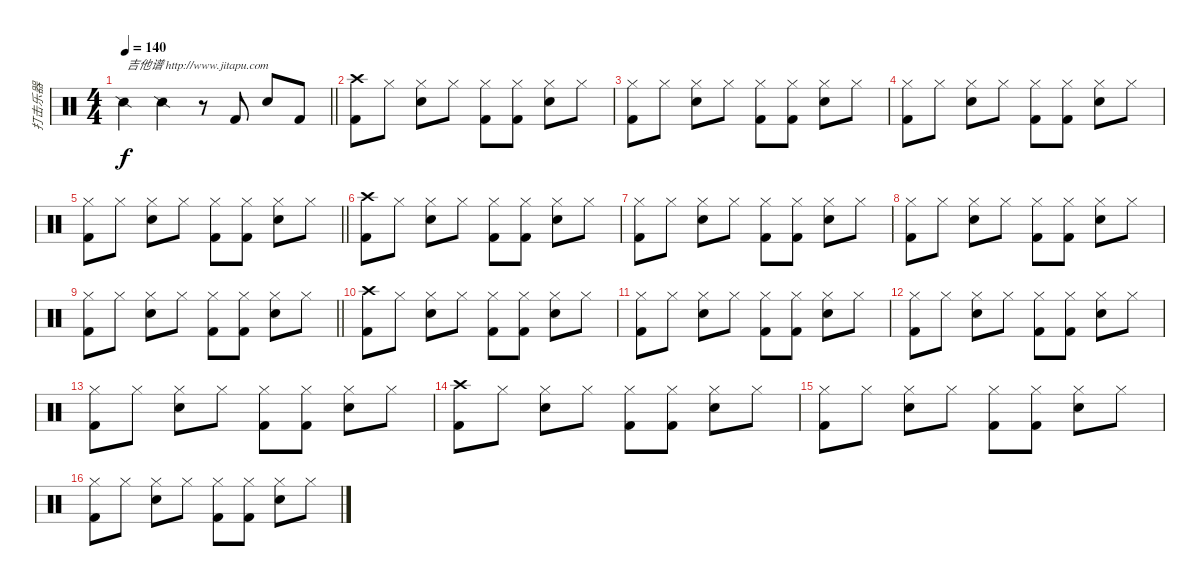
\track ("打击乐器" "打击乐器") {instrument percussion}
\staff {score}
\articulation defaults
\ts (4 4)
\tempo 140
\clef neutral
\barLineRight lightlight
\ks c "Snare (side stick) 2".4{txt "吉他谱 http://www.jitapu.com" dy f} "Snare (side stick) 2".4
r.8 "Kick (hit) 2".8 "Electric Snare (hit)".8 "Kick (hit) 2".8 |
("Crash high (hit)" "Kick (hit) 2").8 "Hi-Hat (closed)".8 ("Hi-Hat (closed)" "Electric Snare (hit)").8 "Hi-Hat (closed)".8 ("Hi-Hat (closed)" "Kick (hit) 2").8 ("Hi-Hat (closed)" "Kick (hit) 2").8 ("Hi-Hat (closed)" "Electric Snare (hit)").8 "Hi-Hat (closed)".8 |
("Hi-Hat (closed)" "Kick (hit) 2").8 "Hi-Hat (closed)".8 ("Hi-Hat (closed)" "Electric Snare (hit)").8 "Hi-Hat (closed)".8 ("Hi-Hat (closed)" "Kick (hit) 2").8 ("Hi-Hat (closed)" "Kick (hit) 2").8 ("Hi-Hat (closed)" "Electric Snare (hit)").8 "Hi-Hat (closed)".8 |
("Hi-Hat (closed)" "Kick (hit) 2").8 "Hi-Hat (closed)".8 ("Hi-Hat (closed)" "Electric Snare (hit)").8 "Hi-Hat (closed)".8 ("Hi-Hat (closed)" "Kick (hit) 2").8 ("Hi-Hat (closed)" "Kick (hit) 2").8 ("Hi-Hat (closed)" "Electric Snare (hit)").8 "Hi-Hat (closed)".8 |
\barLineRight lightlight
("Hi-Hat (closed)" "Kick (hit) 2").8 "Hi-Hat (closed)".8 ("Hi-Hat (closed)" "Electric Snare (hit)").8 "Hi-Hat (closed)".8 ("Hi-Hat (closed)" "Kick (hit) 2").8 ("Hi-Hat (closed)" "Kick (hit) 2").8 ("Hi-Hat (closed)" "Electric Snare (hit)").8 "Hi-Hat (closed)".8 |
("Crash high (hit)" "Kick (hit) 2").8 "Hi-Hat (closed)".8 ("Hi-Hat (closed)" "Electric Snare (hit)").8 "Hi-Hat (closed)".8 ("Hi-Hat (closed)" "Kick (hit) 2").8 ("Hi-Hat (closed)" "Kick (hit) 2").8 ("Hi-Hat (closed)" "Electric Snare (hit)").8 "Hi-Hat (closed)".8 |
("Hi-Hat (closed)" "Kick (hit) 2").8 "Hi-Hat (closed)".8 ("Hi-Hat (closed)" "Electric Snare (hit)").8 "Hi-Hat (closed)".8 ("Hi-Hat (closed)" "Kick (hit) 2").8 ("Hi-Hat (closed)" "Kick (hit) 2").8 ("Hi-Hat (closed)" "Electric Snare (hit)").8 "Hi-Hat (closed)".8 |
("Hi-Hat (closed)" "Kick (hit) 2").8 "Hi-Hat (closed)".8 ("Hi-Hat (closed)" "Electric Snare (hit)").8 "Hi-Hat (closed)".8 ("Hi-Hat (closed)" "Kick (hit) 2").8 ("Hi-Hat (closed)" "Kick (hit) 2").8 ("Hi-Hat (closed)" "Electric Snare (hit)").8 "Hi-Hat (closed)".8 |
\barLineRight lightlight
("Hi-Hat (closed)" "Kick (hit) 2").8 "Hi-Hat (closed)".8 ("Hi-Hat (closed)" "Electric Snare (hit)").8 "Hi-Hat (closed)".8 ("Hi-Hat (closed)" "Kick (hit) 2").8 ("Hi-Hat (closed)" "Kick (hit) 2").8 ("Hi-Hat (closed)" "Electric Snare (hit)").8 "Hi-Hat (closed)".8 |
("Crash high (hit)" "Kick (hit) 2").8 "Hi-Hat (closed)".8 ("Hi-Hat (closed)" "Electric Snare (hit)").8 "Hi-Hat (closed)".8 ("Hi-Hat (closed)" "Kick (hit) 2").8 ("Hi-Hat (closed)" "Kick (hit) 2").8 ("Hi-Hat (closed)" "Electric Snare (hit)").8 "Hi-Hat (closed)".8 |
("Hi-Hat (closed)" "Kick (hit) 2").8 "Hi-Hat (closed)".8 ("Hi-Hat (closed)" "Electric Snare (hit)").8 "Hi-Hat (closed)".8 ("Hi-Hat (closed)" "Kick (hit) 2").8 ("Hi-Hat (closed)" "Kick (hit) 2").8 ("Hi-Hat (closed)" "Electric Snare (hit)").8 "Hi-Hat (closed)".8 |
("Hi-Hat (closed)" "Kick (hit) 2").8 "Hi-Hat (closed)".8 ("Hi-Hat (closed)" "Electric Snare (hit)").8 "Hi-Hat (closed)".8 ("Hi-Hat (closed)" "Kick (hit) 2").8 ("Hi-Hat (closed)" "Kick (hit) 2").8 ("Hi-Hat (closed)" "Electric Snare (hit)").8 "Hi-Hat (closed)".8 |
("Hi-Hat (closed)" "Kick (hit) 2").8 "Hi-Hat (closed)".8 ("Hi-Hat (closed)" "Electric Snare (hit)").8 "Hi-Hat (closed)".8 ("Hi-Hat (closed)" "Kick (hit) 2").8 ("Hi-Hat (closed)" "Kick (hit) 2").8 ("Hi-Hat (closed)" "Electric Snare (hit)").8 "Hi-Hat (closed)".8 |
("Crash high (hit)" "Kick (hit) 2").8 "Hi-Hat (closed)".8 ("Hi-Hat (closed)" "Electric Snare (hit)").8 "Hi-Hat (closed)".8 ("Hi-Hat (closed)" "Kick (hit) 2").8 ("Hi-Hat (closed)" "Kick (hit) 2").8 ("Hi-Hat (closed)" "Electric Snare (hit)").8 "Hi-Hat (closed)".8 |
("Hi-Hat (closed)" "Kick (hit) 2").8 "Hi-Hat (closed)".8 ("Hi-Hat (closed)" "Electric Snare (hit)").8 "Hi-Hat (closed)".8 ("Hi-Hat (closed)" "Kick (hit) 2").8 ("Hi-Hat (closed)" "Kick (hit) 2").8 ("Hi-Hat (closed)" "Electric Snare (hit)").8 "Hi-Hat (closed)".8 |
("Hi-Hat (closed)" "Kick (hit) 2").8 "Hi-Hat (closed)".8 ("Hi-Hat (closed)" "Electric Snare (hit)").8 "Hi-Hat (closed)".8 ("Hi-Hat (closed)" "Kick (hit) 2").8 ("Hi-Hat (closed)" "Kick (hit) 2").8 ("Hi-Hat (closed)" "Electric Snare (hit)").8 "Hi-Hat (closed)".8
